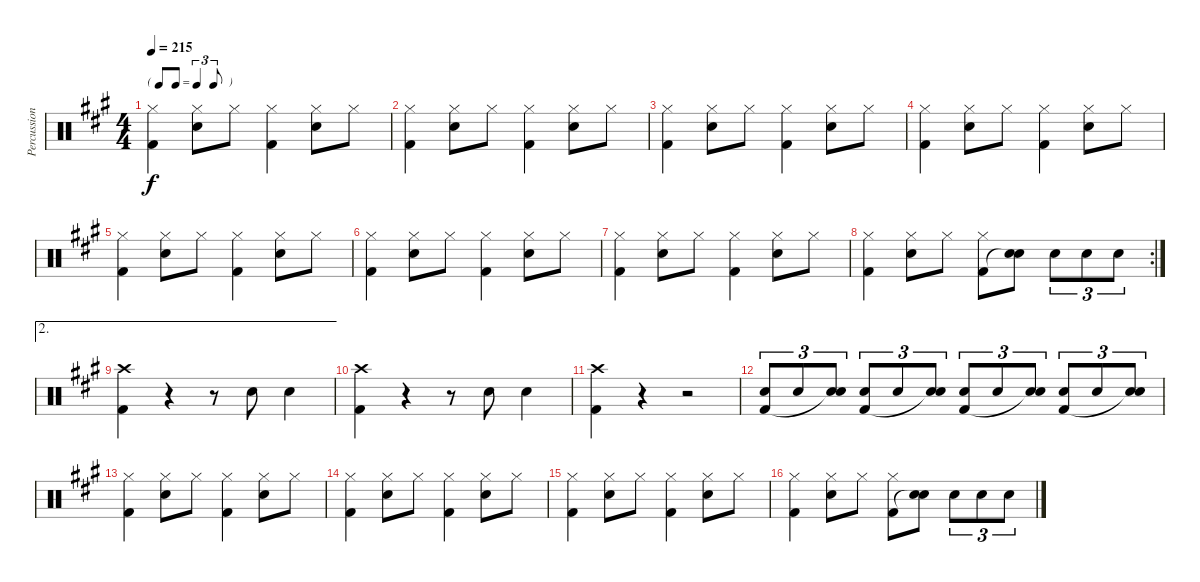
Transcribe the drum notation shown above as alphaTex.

\track ("Percussion" "Percussion") {instrument percussion}
\staff {score}
\articulation defaults
\ts (4 4)
\tf triplet8th
\tempo 215
\clef neutral
\ks a
("Hi-Hat (closed)" "Kick (hit) 2").4{dy f} ("Hi-Hat (closed)" "Snare (hit) 2").8 "Hi-Hat (closed)".8 ("Hi-Hat (closed)" "Kick (hit) 2").4 ("Hi-Hat (closed)" "Snare (hit) 2").8 "Hi-Hat (closed)".8 |
("Hi-Hat (closed)" "Kick (hit) 2").4 ("Hi-Hat (closed)" "Snare (hit) 2").8 "Hi-Hat (closed)".8 ("Hi-Hat (closed)" "Kick (hit) 2").4 ("Hi-Hat (closed)" "Snare (hit) 2").8 "Hi-Hat (closed)".8 |
("Hi-Hat (closed)" "Kick (hit) 2").4 ("Hi-Hat (closed)" "Snare (hit) 2").8 "Hi-Hat (closed)".8 ("Hi-Hat (closed)" "Kick (hit) 2").4 ("Hi-Hat (closed)" "Snare (hit) 2").8 "Hi-Hat (closed)".8 |
("Hi-Hat (closed)" "Kick (hit) 2").4 ("Hi-Hat (closed)" "Snare (hit) 2").8 "Hi-Hat (closed)".8 ("Hi-Hat (closed)" "Kick (hit) 2").4 ("Hi-Hat (closed)" "Snare (hit) 2").8 "Hi-Hat (closed)".8 |
("Hi-Hat (closed)" "Kick (hit) 2").4 ("Hi-Hat (closed)" "Snare (hit) 2").8 "Hi-Hat (closed)".8 ("Hi-Hat (closed)" "Kick (hit) 2").4 ("Hi-Hat (closed)" "Snare (hit) 2").8 "Hi-Hat (closed)".8 |
("Hi-Hat (closed)" "Kick (hit) 2").4 ("Hi-Hat (closed)" "Snare (hit) 2").8 "Hi-Hat (closed)".8 ("Hi-Hat (closed)" "Kick (hit) 2").4 ("Hi-Hat (closed)" "Snare (hit) 2").8 "Hi-Hat (closed)".8 |
("Hi-Hat (closed)" "Kick (hit) 2").4 ("Hi-Hat (closed)" "Snare (hit) 2").8 "Hi-Hat (closed)".8 ("Hi-Hat (closed)" "Kick (hit) 2").4 ("Hi-Hat (closed)" "Snare (hit) 2").8 "Hi-Hat (closed)".8 |
\rc 2
("Hi-Hat (closed)" "Kick (hit) 2").4 ("Hi-Hat (closed)" "Snare (hit) 2").8 "Hi-Hat (closed)".8 ("Hi-Hat (closed)" "Kick (hit) 2").8 ("Snare (hit) 2" "Snare (hit)"{t}).8 "Snare (hit) 2".8{tu (3 2)} "Snare (hit) 2".8{tu (3 2)} "Snare (hit) 2".8{tu (3 2)} |
\ae 2
("Crash high (hit)" "Kick (hit) 2").4 r.4 r.8 "Snare (hit) 2".8 "Snare (hit) 2".4 |
("Crash high (hit)" "Kick (hit) 2").4 r.4 r.8 "Snare (hit) 2".8 "Snare (hit) 2".4 |
("Crash high (hit)" "Kick (hit) 2").4 r.4 r.2 |
("Snare (hit) 2" "Kick (hit) 2").8{tu (3 2)} "Snare (hit) 2".8{tu (3 2)} ("Snare (hit) 2" "Snare (hit)"{t}).8{tu (3 2)} ("Snare (hit) 2" "Kick (hit) 2").8{tu (3 2)} "Snare (hit) 2".8{tu (3 2)} ("Snare (hit) 2" "Snare (hit)"{t}).8{tu (3 2)} ("Snare (hit) 2" "Kick (hit) 2").8{tu (3 2)} "Snare (hit) 2".8{tu (3 2)} ("Snare (hit) 2" "Snare (hit)"{t}).8{tu (3 2)} ("Snare (hit) 2" "Kick (hit) 2").8{tu (3 2)} "Snare (hit) 2".8{tu (3 2)} ("Snare (hit) 2" "Snare (hit)"{t}).8{tu (3 2)} |
("Hi-Hat (closed)" "Kick (hit) 2").4 ("Hi-Hat (closed)" "Snare (hit) 2").8 "Hi-Hat (closed)".8 ("Hi-Hat (closed)" "Kick (hit) 2").4 ("Hi-Hat (closed)" "Snare (hit) 2").8 "Hi-Hat (closed)".8 |
("Hi-Hat (closed)" "Kick (hit) 2").4 ("Hi-Hat (closed)" "Snare (hit) 2").8 "Hi-Hat (closed)".8 ("Hi-Hat (closed)" "Kick (hit) 2").4 ("Hi-Hat (closed)" "Snare (hit) 2").8 "Hi-Hat (closed)".8 |
("Hi-Hat (closed)" "Kick (hit) 2").4 ("Hi-Hat (closed)" "Snare (hit) 2").8 "Hi-Hat (closed)".8 ("Hi-Hat (closed)" "Kick (hit) 2").4 ("Hi-Hat (closed)" "Snare (hit) 2").8 "Hi-Hat (closed)".8 |
("Hi-Hat (closed)" "Kick (hit) 2").4 ("Hi-Hat (closed)" "Snare (hit) 2").8 "Hi-Hat (closed)".8 ("Hi-Hat (closed)" "Kick (hit) 2").8 ("Snare (hit) 2" "Snare (hit)"{t}).8 "Snare (hit) 2".8{tu (3 2)} "Snare (hit) 2".8{tu (3 2)} "Snare (hit) 2".8{tu (3 2)}
